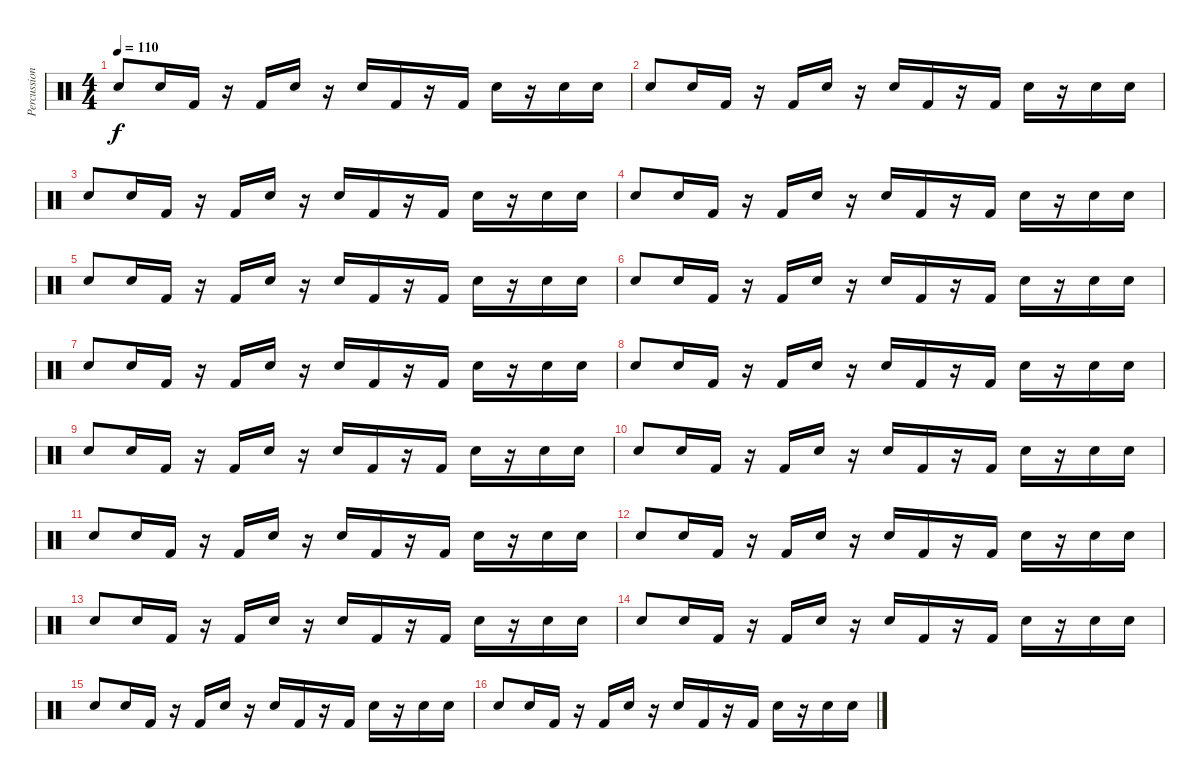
\track ("Percussion" "Percussion") {instrument percussion}
\staff {score}
\articulation defaults
\ts (4 4)
\tempo 110
\clef neutral
\ks c "Electric Snare (hit)".8{dy f} "Electric Snare (hit)".16 "Kick (hit) 2".16
r.16 "Kick (hit) 2".16 "Electric Snare (hit)".16 r.16 "Electric Snare (hit)".16 "Kick (hit) 2".16 r.16 "Kick (hit) 2".16 "Electric Snare (hit)".16 r.16 "Electric Snare (hit)".16 "Electric Snare (hit)".16 |
"Electric Snare (hit)".8 "Electric Snare (hit)".16 "Kick (hit) 2".16 r.16 "Kick (hit) 2".16 "Electric Snare (hit)".16 r.16 "Electric Snare (hit)".16 "Kick (hit) 2".16 r.16 "Kick (hit) 2".16 "Electric Snare (hit)".16 r.16 "Electric Snare (hit)".16 "Electric Snare (hit)".16 |
"Electric Snare (hit)".8 "Electric Snare (hit)".16 "Kick (hit) 2".16 r.16 "Kick (hit) 2".16 "Electric Snare (hit)".16 r.16 "Electric Snare (hit)".16 "Kick (hit) 2".16 r.16 "Kick (hit) 2".16 "Electric Snare (hit)".16 r.16 "Electric Snare (hit)".16 "Electric Snare (hit)".16 |
"Electric Snare (hit)".8 "Electric Snare (hit)".16 "Kick (hit) 2".16 r.16 "Kick (hit) 2".16 "Electric Snare (hit)".16 r.16 "Electric Snare (hit)".16 "Kick (hit) 2".16 r.16 "Kick (hit) 2".16 "Electric Snare (hit)".16 r.16 "Electric Snare (hit)".16 "Electric Snare (hit)".16 |
"Electric Snare (hit)".8 "Electric Snare (hit)".16 "Kick (hit) 2".16 r.16 "Kick (hit) 2".16 "Electric Snare (hit)".16 r.16 "Electric Snare (hit)".16 "Kick (hit) 2".16 r.16 "Kick (hit) 2".16 "Electric Snare (hit)".16 r.16 "Electric Snare (hit)".16 "Electric Snare (hit)".16 |
"Electric Snare (hit)".8 "Electric Snare (hit)".16 "Kick (hit) 2".16 r.16 "Kick (hit) 2".16 "Electric Snare (hit)".16 r.16 "Electric Snare (hit)".16 "Kick (hit) 2".16 r.16 "Kick (hit) 2".16 "Electric Snare (hit)".16 r.16 "Electric Snare (hit)".16 "Electric Snare (hit)".16 |
"Electric Snare (hit)".8 "Electric Snare (hit)".16 "Kick (hit) 2".16 r.16 "Kick (hit) 2".16 "Electric Snare (hit)".16 r.16 "Electric Snare (hit)".16 "Kick (hit) 2".16 r.16 "Kick (hit) 2".16 "Electric Snare (hit)".16 r.16 "Electric Snare (hit)".16 "Electric Snare (hit)".16 |
"Electric Snare (hit)".8 "Electric Snare (hit)".16 "Kick (hit) 2".16 r.16 "Kick (hit) 2".16 "Electric Snare (hit)".16 r.16 "Electric Snare (hit)".16 "Kick (hit) 2".16 r.16 "Kick (hit) 2".16 "Electric Snare (hit)".16 r.16 "Electric Snare (hit)".16 "Electric Snare (hit)".16 |
"Electric Snare (hit)".8 "Electric Snare (hit)".16 "Kick (hit) 2".16 r.16 "Kick (hit) 2".16 "Electric Snare (hit)".16 r.16 "Electric Snare (hit)".16 "Kick (hit) 2".16 r.16 "Kick (hit) 2".16 "Electric Snare (hit)".16 r.16 "Electric Snare (hit)".16 "Electric Snare (hit)".16 |
"Electric Snare (hit)".8 "Electric Snare (hit)".16 "Kick (hit) 2".16 r.16 "Kick (hit) 2".16 "Electric Snare (hit)".16 r.16 "Electric Snare (hit)".16 "Kick (hit) 2".16 r.16 "Kick (hit) 2".16 "Electric Snare (hit)".16 r.16 "Electric Snare (hit)".16 "Electric Snare (hit)".16 |
"Electric Snare (hit)".8 "Electric Snare (hit)".16 "Kick (hit) 2".16 r.16 "Kick (hit) 2".16 "Electric Snare (hit)".16 r.16 "Electric Snare (hit)".16 "Kick (hit) 2".16 r.16 "Kick (hit) 2".16 "Electric Snare (hit)".16 r.16 "Electric Snare (hit)".16 "Electric Snare (hit)".16 |
"Electric Snare (hit)".8 "Electric Snare (hit)".16 "Kick (hit) 2".16 r.16 "Kick (hit) 2".16 "Electric Snare (hit)".16 r.16 "Electric Snare (hit)".16 "Kick (hit) 2".16 r.16 "Kick (hit) 2".16 "Electric Snare (hit)".16 r.16 "Electric Snare (hit)".16 "Electric Snare (hit)".16 |
"Electric Snare (hit)".8 "Electric Snare (hit)".16 "Kick (hit) 2".16 r.16 "Kick (hit) 2".16 "Electric Snare (hit)".16 r.16 "Electric Snare (hit)".16 "Kick (hit) 2".16 r.16 "Kick (hit) 2".16 "Electric Snare (hit)".16 r.16 "Electric Snare (hit)".16 "Electric Snare (hit)".16 |
"Electric Snare (hit)".8 "Electric Snare (hit)".16 "Kick (hit) 2".16 r.16 "Kick (hit) 2".16 "Electric Snare (hit)".16 r.16 "Electric Snare (hit)".16 "Kick (hit) 2".16 r.16 "Kick (hit) 2".16 "Electric Snare (hit)".16 r.16 "Electric Snare (hit)".16 "Electric Snare (hit)".16 |
"Electric Snare (hit)".8 "Electric Snare (hit)".16 "Kick (hit) 2".16 r.16 "Kick (hit) 2".16 "Electric Snare (hit)".16 r.16 "Electric Snare (hit)".16 "Kick (hit) 2".16 r.16 "Kick (hit) 2".16 "Electric Snare (hit)".16 r.16 "Electric Snare (hit)".16 "Electric Snare (hit)".16 |
"Electric Snare (hit)".8 "Electric Snare (hit)".16 "Kick (hit) 2".16 r.16 "Kick (hit) 2".16 "Electric Snare (hit)".16 r.16 "Electric Snare (hit)".16 "Kick (hit) 2".16 r.16 "Kick (hit) 2".16 "Electric Snare (hit)".16 r.16 "Electric Snare (hit)".16 "Electric Snare (hit)".16
